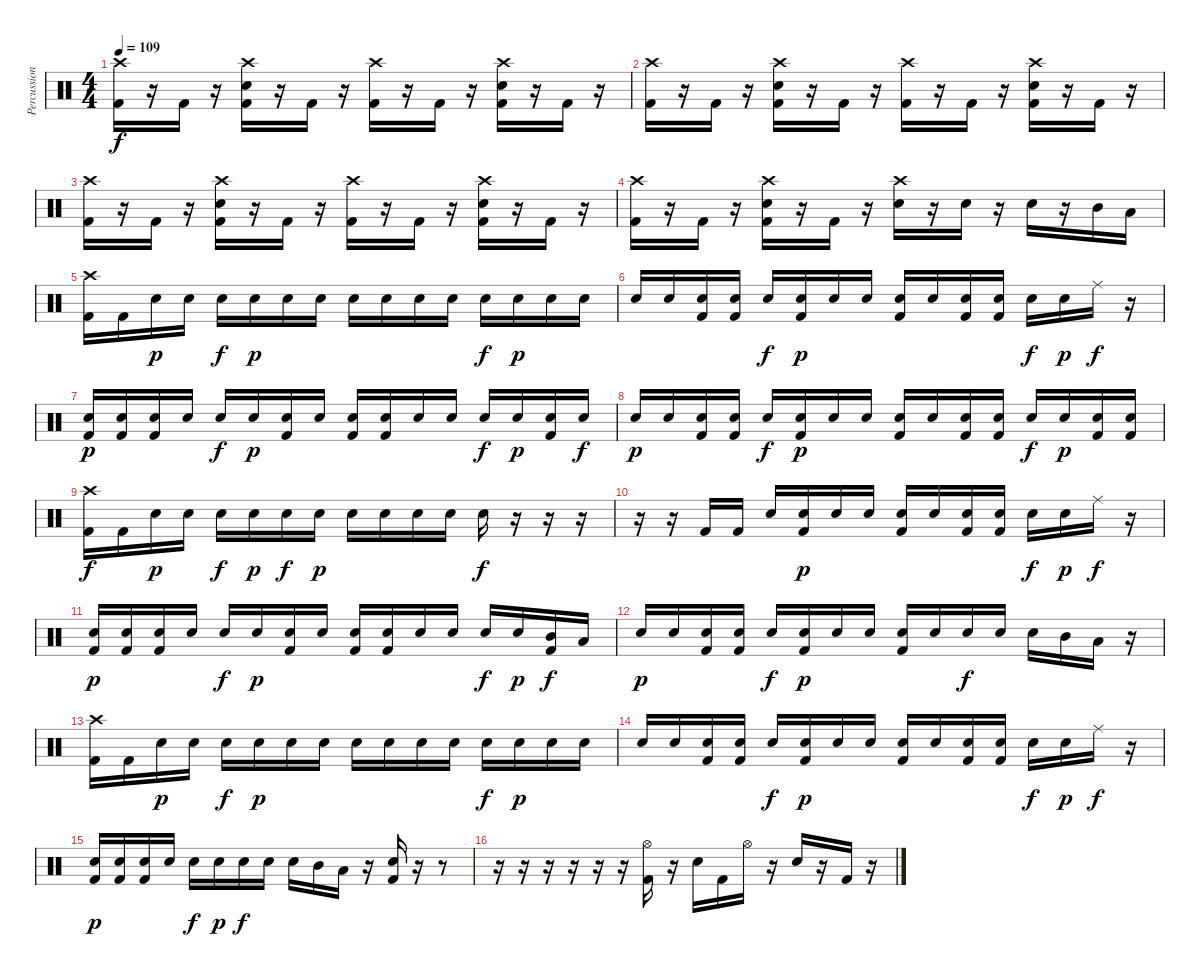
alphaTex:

\track ("Percussion" "Percussion") {instrument percussion}
\staff {score}
\articulation defaults
\ts (4 4)
\tempo 109
\clef neutral
\ks c
("Crash high (hit)" "Kick (hit) 2").16{dy f} r.16 "Kick (hit) 2".16 r.16 ("Crash high (hit)" "Snare (hit) 2" "Kick (hit) 2").16 r.16 "Kick (hit) 2".16 r.16 ("Crash high (hit)" "Kick (hit) 2").16 r.16 "Kick (hit) 2".16 r.16 ("Crash high (hit)" "Snare (hit) 2" "Kick (hit) 2").16 r.16 "Kick (hit) 2".16 r.16 |
("Crash high (hit)" "Kick (hit) 2").16 r.16 "Kick (hit) 2".16 r.16 ("Crash high (hit)" "Snare (hit) 2" "Kick (hit) 2").16 r.16 "Kick (hit) 2".16 r.16 ("Crash high (hit)" "Kick (hit) 2").16 r.16 "Kick (hit) 2".16 r.16 ("Crash high (hit)" "Snare (hit) 2" "Kick (hit) 2").16 r.16 "Kick (hit) 2".16 r.16 |
("Crash high (hit)" "Kick (hit) 2").16 r.16 "Kick (hit) 2".16 r.16 ("Crash high (hit)" "Snare (hit) 2" "Kick (hit) 2").16 r.16 "Kick (hit) 2".16 r.16 ("Crash high (hit)" "Kick (hit) 2").16 r.16 "Kick (hit) 2".16 r.16 ("Crash high (hit)" "Snare (hit) 2" "Kick (hit) 2").16 r.16 "Kick (hit) 2".16 r.16 |
("Crash high (hit)" "Kick (hit) 2").16 r.16 "Kick (hit) 2".16 r.16 ("Crash high (hit)" "Snare (hit) 2" "Kick (hit) 2").16 r.16 "Kick (hit) 2".16 r.16 ("Crash high (hit)" "Snare (hit) 2").16 r.16 "Snare (hit) 2".16 r.16 "Snare (hit) 2".16 r.16 "Mid Tom (hit)".16 "Low Tom (hit)".16 |
("Crash high (hit)" "Kick (hit) 2").16 "Kick (hit) 2".16 "Snare (hit) 2".16{dy p} "Snare (hit) 2".16 "Snare (hit) 2".16{dy f} "Snare (hit) 2".16{dy p} "Snare (hit) 2".16 "Snare (hit) 2".16 "Snare (hit) 2".16 "Snare (hit) 2".16 "Snare (hit) 2".16 "Snare (hit) 2".16 "Snare (hit) 2".16{dy f} "Snare (hit) 2".16{dy p} "Snare (hit) 2".16 "Snare (hit) 2".16 |
"Snare (hit) 2".16 "Snare (hit) 2".16 ("Snare (hit) 2" "Kick (hit) 2").16 ("Snare (hit) 2" "Kick (hit) 2").16 "Snare (hit) 2".16{dy f} ("Snare (hit) 2" "Kick (hit) 2").16{dy p} "Snare (hit) 2".16 "Snare (hit) 2".16 ("Snare (hit) 2" "Kick (hit) 2").16 "Snare (hit) 2".16 ("Snare (hit) 2" "Kick (hit) 2").16 ("Snare (hit) 2" "Kick (hit) 2").16 "Snare (hit) 2".16{dy f} "Snare (hit) 2".16{dy p} "Ride (middle)".16{dy f} r.16 |
("Snare (hit) 2" "Kick (hit) 2").16{dy p} ("Snare (hit) 2" "Kick (hit) 2").16 ("Snare (hit) 2" "Kick (hit) 2").16 "Snare (hit) 2".16 "Snare (hit) 2".16{dy f} "Snare (hit) 2".16{dy p} ("Snare (hit) 2" "Kick (hit) 2").16 "Snare (hit) 2".16 ("Snare (hit) 2" "Kick (hit) 2").16 ("Snare (hit) 2" "Kick (hit) 2").16 "Snare (hit) 2".16 "Snare (hit) 2".16 "Snare (hit) 2".16{dy f} "Snare (hit) 2".16{dy p} ("Snare (hit) 2" "Kick (hit) 2").16 "Snare (hit) 2".16{dy f} |
"Snare (hit) 2".16{dy p} "Snare (hit) 2".16 ("Snare (hit) 2" "Kick (hit) 2").16 ("Snare (hit) 2" "Kick (hit) 2").16 "Snare (hit) 2".16{dy f} ("Snare (hit) 2" "Kick (hit) 2").16{dy p} "Snare (hit) 2".16 "Snare (hit) 2".16 ("Snare (hit) 2" "Kick (hit) 2").16 "Snare (hit) 2".16 ("Snare (hit) 2" "Kick (hit) 2").16 ("Snare (hit) 2" "Kick (hit) 2").16 "Snare (hit) 2".16{dy f} "Snare (hit) 2".16{dy p} ("Snare (hit) 2" "Kick (hit) 2").16 ("Snare (hit) 2" "Kick (hit) 2").16 |
("Crash high (hit)" "Kick (hit) 2").16{dy f} "Kick (hit) 2".16 "Snare (hit) 2".16{dy p} "Snare (hit) 2".16 "Snare (hit) 2".16{dy f} "Snare (hit) 2".16{dy p} "Snare (hit) 2".16{dy f} "Snare (hit) 2".16{dy p} "Snare (hit) 2".16 "Snare (hit) 2".16 "Snare (hit) 2".16 "Snare (hit) 2".16 "Snare (hit) 2".16{dy f} r.16 r.16 r.16 |
r.16 r.16 "Kick (hit) 2".16 "Kick (hit) 2".16 "Snare (hit) 2".16 ("Snare (hit) 2" "Kick (hit) 2").16{dy p} "Snare (hit) 2".16 "Snare (hit) 2".16 ("Snare (hit) 2" "Kick (hit) 2").16 "Snare (hit) 2".16 ("Snare (hit) 2" "Kick (hit) 2").16 ("Snare (hit) 2" "Kick (hit) 2").16 "Snare (hit) 2".16{dy f} "Snare (hit) 2".16{dy p} "Ride (middle)".16{dy f} r.16 |
("Snare (hit) 2" "Kick (hit) 2").16{dy p} ("Snare (hit) 2" "Kick (hit) 2").16 ("Snare (hit) 2" "Kick (hit) 2").16 "Snare (hit) 2".16 "Snare (hit) 2".16{dy f} "Snare (hit) 2".16{dy p} ("Snare (hit) 2" "Kick (hit) 2").16 "Snare (hit) 2".16 ("Snare (hit) 2" "Kick (hit) 2").16 ("Snare (hit) 2" "Kick (hit) 2").16 "Snare (hit) 2".16 "Snare (hit) 2".16 "Snare (hit) 2".16{dy f} "Snare (hit) 2".16{dy p} ("Mid Tom (hit)" "Kick (hit) 2").16{dy f} "Low Tom (hit)".16 |
"Snare (hit) 2".16{dy p} "Snare (hit) 2".16 ("Snare (hit) 2" "Kick (hit) 2").16 ("Snare (hit) 2" "Kick (hit) 2").16 "Snare (hit) 2".16{dy f} ("Snare (hit) 2" "Kick (hit) 2").16{dy p} "Snare (hit) 2".16 "Snare (hit) 2".16 ("Snare (hit) 2" "Kick (hit) 2").16 "Snare (hit) 2".16 "Snare (hit) 2".16{dy f} "Snare (hit) 2".16 "Snare (hit) 2".16 "Mid Tom (hit)".16 "Low Tom (hit)".16 r.16 |
("Crash high (hit)" "Kick (hit) 2").16 "Kick (hit) 2".16 "Snare (hit) 2".16{dy p} "Snare (hit) 2".16 "Snare (hit) 2".16{dy f} "Snare (hit) 2".16{dy p} "Snare (hit) 2".16 "Snare (hit) 2".16 "Snare (hit) 2".16 "Snare (hit) 2".16 "Snare (hit) 2".16 "Snare (hit) 2".16 "Snare (hit) 2".16{dy f} "Snare (hit) 2".16{dy p} "Snare (hit) 2".16 "Snare (hit) 2".16 |
"Snare (hit) 2".16 "Snare (hit) 2".16 ("Snare (hit) 2" "Kick (hit) 2").16 ("Snare (hit) 2" "Kick (hit) 2").16 "Snare (hit) 2".16{dy f} ("Snare (hit) 2" "Kick (hit) 2").16{dy p} "Snare (hit) 2".16 "Snare (hit) 2".16 ("Snare (hit) 2" "Kick (hit) 2").16 "Snare (hit) 2".16 ("Snare (hit) 2" "Kick (hit) 2").16 ("Snare (hit) 2" "Kick (hit) 2").16 "Snare (hit) 2".16{dy f} "Snare (hit) 2".16{dy p} "Ride (middle)".16{dy f} r.16 |
("Snare (hit) 2" "Kick (hit) 2").16{dy p} ("Snare (hit) 2" "Kick (hit) 2").16 ("Snare (hit) 2" "Kick (hit) 2").16 "Snare (hit) 2".16 "Snare (hit) 2".16{dy f} "Snare (hit) 2".16{dy p} "Snare (hit) 2".16{dy f} "Snare (hit) 2".16 "Snare (hit) 2".16 "Mid Tom (hit)".16 "Low Tom (hit)".16 r.16 ("Snare (hit) 2" "Kick (hit) 2").16 r.16 r.8 |
r.16 r.16 r.16 r.16 r.16 r.16 ("Hi-Hat (open)" "Kick (hit) 2").16 r.16 "Snare (hit) 2".16 "Kick (hit) 2".16 "Hi-Hat (open)".16 r.16 "Snare (hit) 2".16 r.16 "Kick (hit) 2".16 r.16
